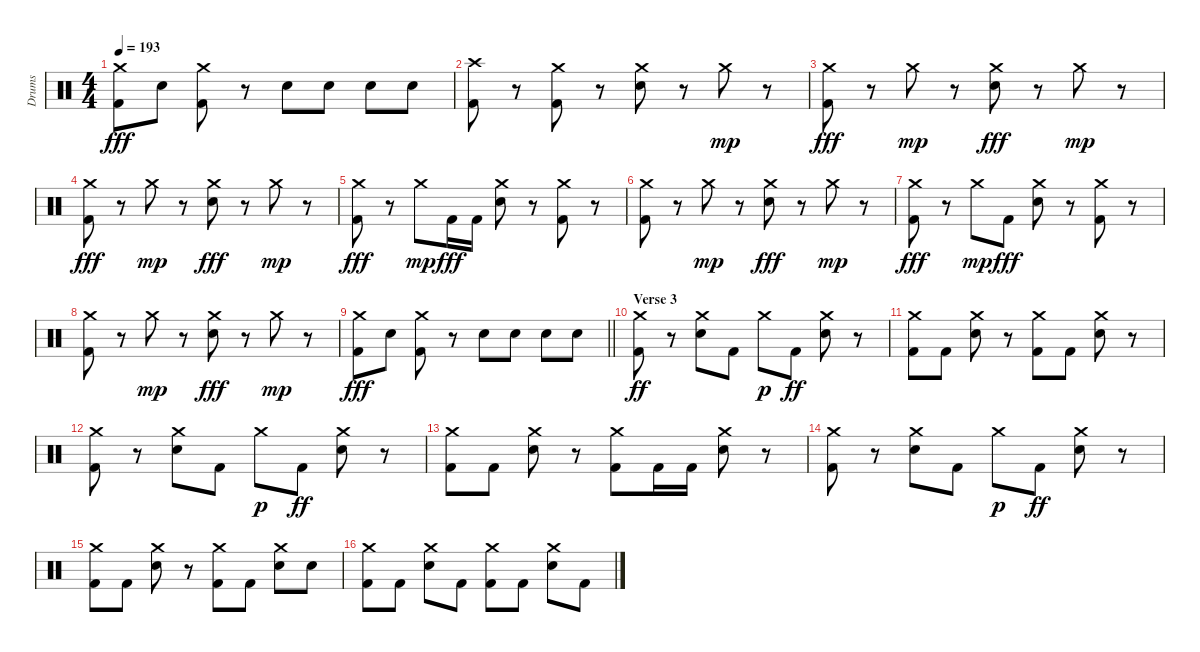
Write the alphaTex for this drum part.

\track ("Drums" "Drums") {instrument percussion}
\staff {score}
\articulation defaults
\ts (4 4)
\tempo 193
\clef neutral
\ks c
("Crash medium (hit)" "Kick (hit) 2").8{dy fff} "Snare (hit) 2".8 ("Crash medium (hit)" "Kick (hit) 2").8 r.8 "Snare (hit) 2".8 "Snare (hit) 2".8 "Snare (hit) 2".8 "Snare (hit) 2".8 |
("Crash high (hit)" "Kick (hit) 2").8 r.8 ("Crash medium (hit)" "Kick (hit) 2").8 r.8 ("Crash medium (hit)" "Snare (hit) 2").8 r.8 "Crash medium (hit)".8{dy mp} r.8 |
("Crash medium (hit)" "Kick (hit) 2").8{dy fff} r.8 "Crash medium (hit)".8{dy mp} r.8 ("Crash medium (hit)" "Snare (hit) 2").8{dy fff} r.8 "Crash medium (hit)".8{dy mp} r.8 |
("Crash medium (hit)" "Kick (hit) 2").8{dy fff} r.8 "Crash medium (hit)".8{dy mp} r.8 ("Crash medium (hit)" "Snare (hit) 2").8{dy fff} r.8 "Crash medium (hit)".8{dy mp} r.8 |
("Crash medium (hit)" "Kick (hit) 2").8{dy fff} r.8 "Crash medium (hit)".8{dy mp} "Kick (hit) 2".16{dy fff} "Kick (hit) 2".16 ("Crash medium (hit)" "Snare (hit) 2").8 r.8 ("Crash medium (hit)" "Kick (hit) 2").8 r.8 |
("Crash medium (hit)" "Kick (hit) 2").8 r.8 "Crash medium (hit)".8{dy mp} r.8 ("Crash medium (hit)" "Snare (hit) 2").8{dy fff} r.8 "Crash medium (hit)".8{dy mp} r.8 |
("Crash medium (hit)" "Kick (hit) 2").8{dy fff} r.8 "Crash medium (hit)".8{dy mp} "Kick (hit) 2".8{dy fff} ("Crash medium (hit)" "Snare (hit) 2").8 r.8 ("Crash medium (hit)" "Kick (hit) 2").8 r.8 |
("Crash medium (hit)" "Kick (hit) 2").8 r.8 "Crash medium (hit)".8{dy mp} r.8 ("Crash medium (hit)" "Snare (hit) 2").8{dy fff} r.8 "Crash medium (hit)".8{dy mp} r.8 |
\barLineRight lightlight
("Crash medium (hit)" "Kick (hit) 2").8{dy fff} "Snare (hit) 2".8 ("Crash medium (hit)" "Kick (hit) 2").8 r.8 "Snare (hit) 2".8 "Snare (hit) 2".8 "Snare (hit) 2".8 "Snare (hit) 2".8 |
\section ("" "Verse 3")
("Crash medium (hit)" "Kick (hit) 2").8{dy ff} r.8 ("Crash medium (hit)" "Snare (hit) 2").8 "Kick (hit) 2".8 "Crash medium (hit)".8{dy p} "Kick (hit) 2".8{dy ff} ("Crash medium (hit)" "Snare (hit) 2").8 r.8 |
("Crash medium (hit)" "Kick (hit) 2").8 "Kick (hit) 2".8 ("Crash medium (hit)" "Snare (hit) 2").8 r.8 ("Crash medium (hit)" "Kick (hit) 2").8 "Kick (hit) 2".8 ("Crash medium (hit)" "Snare (hit) 2").8 r.8 |
("Crash medium (hit)" "Kick (hit) 2").8 r.8 ("Crash medium (hit)" "Snare (hit) 2").8 "Kick (hit) 2".8 "Crash medium (hit)".8{dy p} "Kick (hit) 2".8{dy ff} ("Crash medium (hit)" "Snare (hit) 2").8 r.8 |
("Crash medium (hit)" "Kick (hit) 2").8 "Kick (hit) 2".8 ("Crash medium (hit)" "Snare (hit) 2").8 r.8 ("Crash medium (hit)" "Kick (hit) 2").8 "Kick (hit) 2".16 "Kick (hit) 2".16 ("Crash medium (hit)" "Snare (hit) 2").8 r.8 |
("Crash medium (hit)" "Kick (hit) 2").8 r.8 ("Crash medium (hit)" "Snare (hit) 2").8 "Kick (hit) 2".8 "Crash medium (hit)".8{dy p} "Kick (hit) 2".8{dy ff} ("Crash medium (hit)" "Snare (hit) 2").8 r.8 |
("Crash medium (hit)" "Kick (hit) 2").8 "Kick (hit) 2".8 ("Crash medium (hit)" "Snare (hit) 2").8 r.8 ("Crash medium (hit)" "Kick (hit) 2").8 "Kick (hit) 2".8 ("Crash medium (hit)" "Snare (hit) 2").8 "Snare (hit) 2".8 |
("Crash medium (hit)" "Kick (hit) 2").8 "Kick (hit) 2".8 ("Crash medium (hit)" "Snare (hit) 2").8 "Kick (hit) 2".8 ("Crash medium (hit)" "Kick (hit) 2").8 "Kick (hit) 2".8 ("Crash medium (hit)" "Snare (hit) 2").8 "Kick (hit) 2".8
